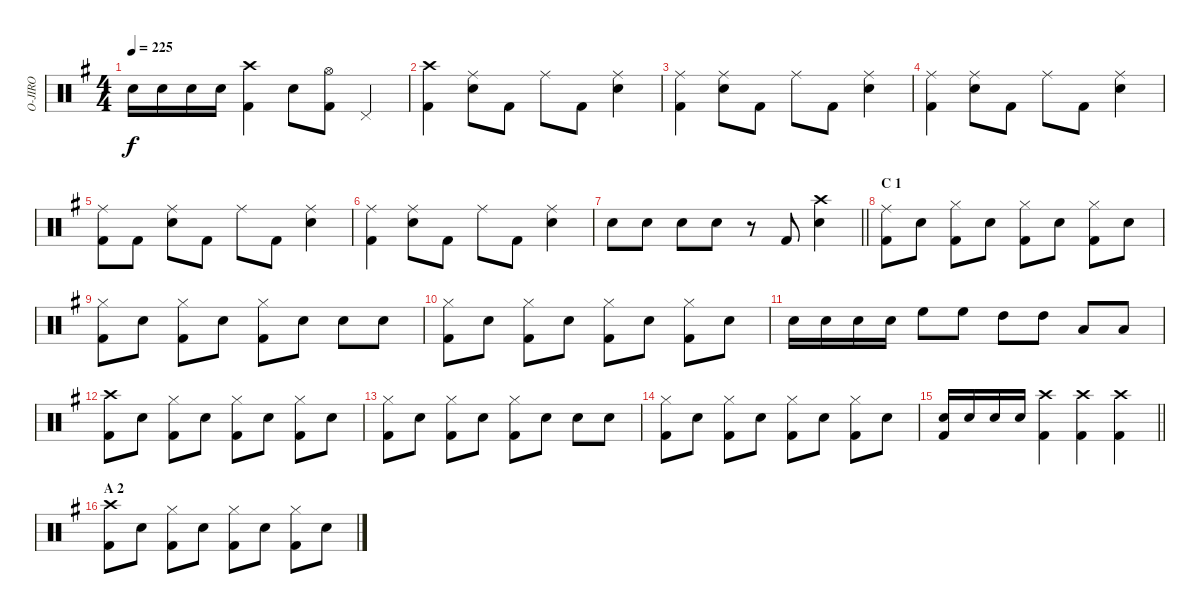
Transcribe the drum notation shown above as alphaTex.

\track ("O-JIRO" "O-JIRO") {instrument percussion}
\staff {score}
\articulation defaults
\ts (4 4)
\tempo 225
\clef neutral
\ks g "Snare (hit) 2".16{dy f} "Snare (hit) 2".16 "Snare (hit) 2".16 "Snare (hit) 2".16
("Crash high (hit)" "Kick (hit) 2").4 "Snare (hit) 2".8 ("Hi-Hat (open)" "Kick (hit) 2").8 "Pedal Hi-Hat (hit)".4 |
("Crash high (hit)" "Kick (hit) 2").4 ("Ride (middle)" "Snare (hit) 2").8 "Kick (hit) 2".8 "Ride (middle)".8 "Kick (hit) 2".8 ("Ride (middle)" "Snare (hit) 2").4 |
("Ride (middle)" "Kick (hit) 2").4 ("Ride (middle)" "Snare (hit) 2").8 "Kick (hit) 2".8 "Ride (middle)".8 "Kick (hit) 2".8 ("Ride (middle)" "Snare (hit) 2").4 |
("Ride (middle)" "Kick (hit) 2").4 ("Ride (middle)" "Snare (hit) 2").8 "Kick (hit) 2".8 "Ride (middle)".8 "Kick (hit) 2".8 ("Ride (middle)" "Snare (hit) 2").4 |
("Ride (middle)" "Kick (hit) 2").8 "Kick (hit) 2".8 ("Ride (middle)" "Snare (hit) 2").8 "Kick (hit) 2".8 "Ride (middle)".8 "Kick (hit) 2".8 ("Ride (middle)" "Snare (hit) 2").4 |
("Ride (middle)" "Kick (hit) 2").4 ("Ride (middle)" "Snare (hit) 2").8 "Kick (hit) 2".8 "Ride (middle)".8 "Kick (hit) 2".8 ("Ride (middle)" "Snare (hit) 2").4 |
\barLineRight lightlight "Snare (hit) 2".8 "Snare (hit) 2".8 "Snare (hit) 2".8 "Snare (hit) 2".8
r.8 "Kick (hit) 2".8 ("Crash high (hit)" "Snare (hit) 2").4 |
\section ("" "C 1")
("Ride (middle)" "Kick (hit) 2").8 "Snare (hit) 2".8 ("Hi-Hat (closed)" "Kick (hit) 2").8 "Snare (hit) 2".8 ("Hi-Hat (closed)" "Kick (hit) 2").8 "Snare (hit) 2".8 ("Hi-Hat (closed)" "Kick (hit) 2").8 "Snare (hit) 2".8 |
("Hi-Hat (closed)" "Kick (hit) 2").8 "Snare (hit) 2".8 ("Hi-Hat (closed)" "Kick (hit) 2").8 "Snare (hit) 2".8 ("Hi-Hat (closed)" "Kick (hit) 2").8 "Snare (hit) 2".8 "Snare (hit) 2".8 "Snare (hit) 2".8 |
("Hi-Hat (closed)" "Kick (hit) 2").8 "Snare (hit) 2".8 ("Hi-Hat (closed)" "Kick (hit) 2").8 "Snare (hit) 2".8 ("Hi-Hat (closed)" "Kick (hit) 2").8 "Snare (hit) 2".8 ("Hi-Hat (closed)" "Kick (hit) 2").8 "Snare (hit) 2".8 |
"Snare (hit) 2".16 "Snare (hit) 2".16 "Snare (hit) 2".16 "Snare (hit) 2".16 "High Floor Tom (hit)".8 "High Floor Tom (hit)".8 "High Tom (hit)".8 "High Tom (hit)".8 "Low Tom (hit)".8 "Low Tom (hit)".8 |
("Crash high (hit)" "Kick (hit) 2").8 "Snare (hit) 2".8 ("Hi-Hat (closed)" "Kick (hit) 2").8 "Snare (hit) 2".8 ("Hi-Hat (closed)" "Kick (hit) 2").8 "Snare (hit) 2".8 ("Hi-Hat (closed)" "Kick (hit) 2").8 "Snare (hit) 2".8 |
("Hi-Hat (closed)" "Kick (hit) 2").8 "Snare (hit) 2".8 ("Hi-Hat (closed)" "Kick (hit) 2").8 "Snare (hit) 2".8 ("Hi-Hat (closed)" "Kick (hit) 2").8 "Snare (hit) 2".8 "Snare (hit) 2".8 "Snare (hit) 2".8 |
("Hi-Hat (closed)" "Kick (hit) 2").8 "Snare (hit) 2".8 ("Hi-Hat (closed)" "Kick (hit) 2").8 "Snare (hit) 2".8 ("Hi-Hat (closed)" "Kick (hit) 2").8 "Snare (hit) 2".8 ("Hi-Hat (closed)" "Kick (hit) 2").8 "Snare (hit) 2".8 |
\barLineRight lightlight
("Snare (hit) 2" "Kick (hit) 2").16 "Snare (hit) 2".16 "Snare (hit) 2".16 "Snare (hit) 2".16 ("Crash high (hit)" "Kick (hit) 2").4 ("Crash high (hit)" "Kick (hit) 2").4 ("Crash high (hit)" "Kick (hit) 2").4 |
\section ("" "A 2")
("Crash high (hit)" "Kick (hit) 2").8 "Snare (hit) 2".8 ("Hi-Hat (closed)" "Kick (hit) 2").8 "Snare (hit) 2".8 ("Hi-Hat (closed)" "Kick (hit) 2").8 "Snare (hit) 2".8 ("Hi-Hat (closed)" "Kick (hit) 2").8 "Snare (hit) 2".8
